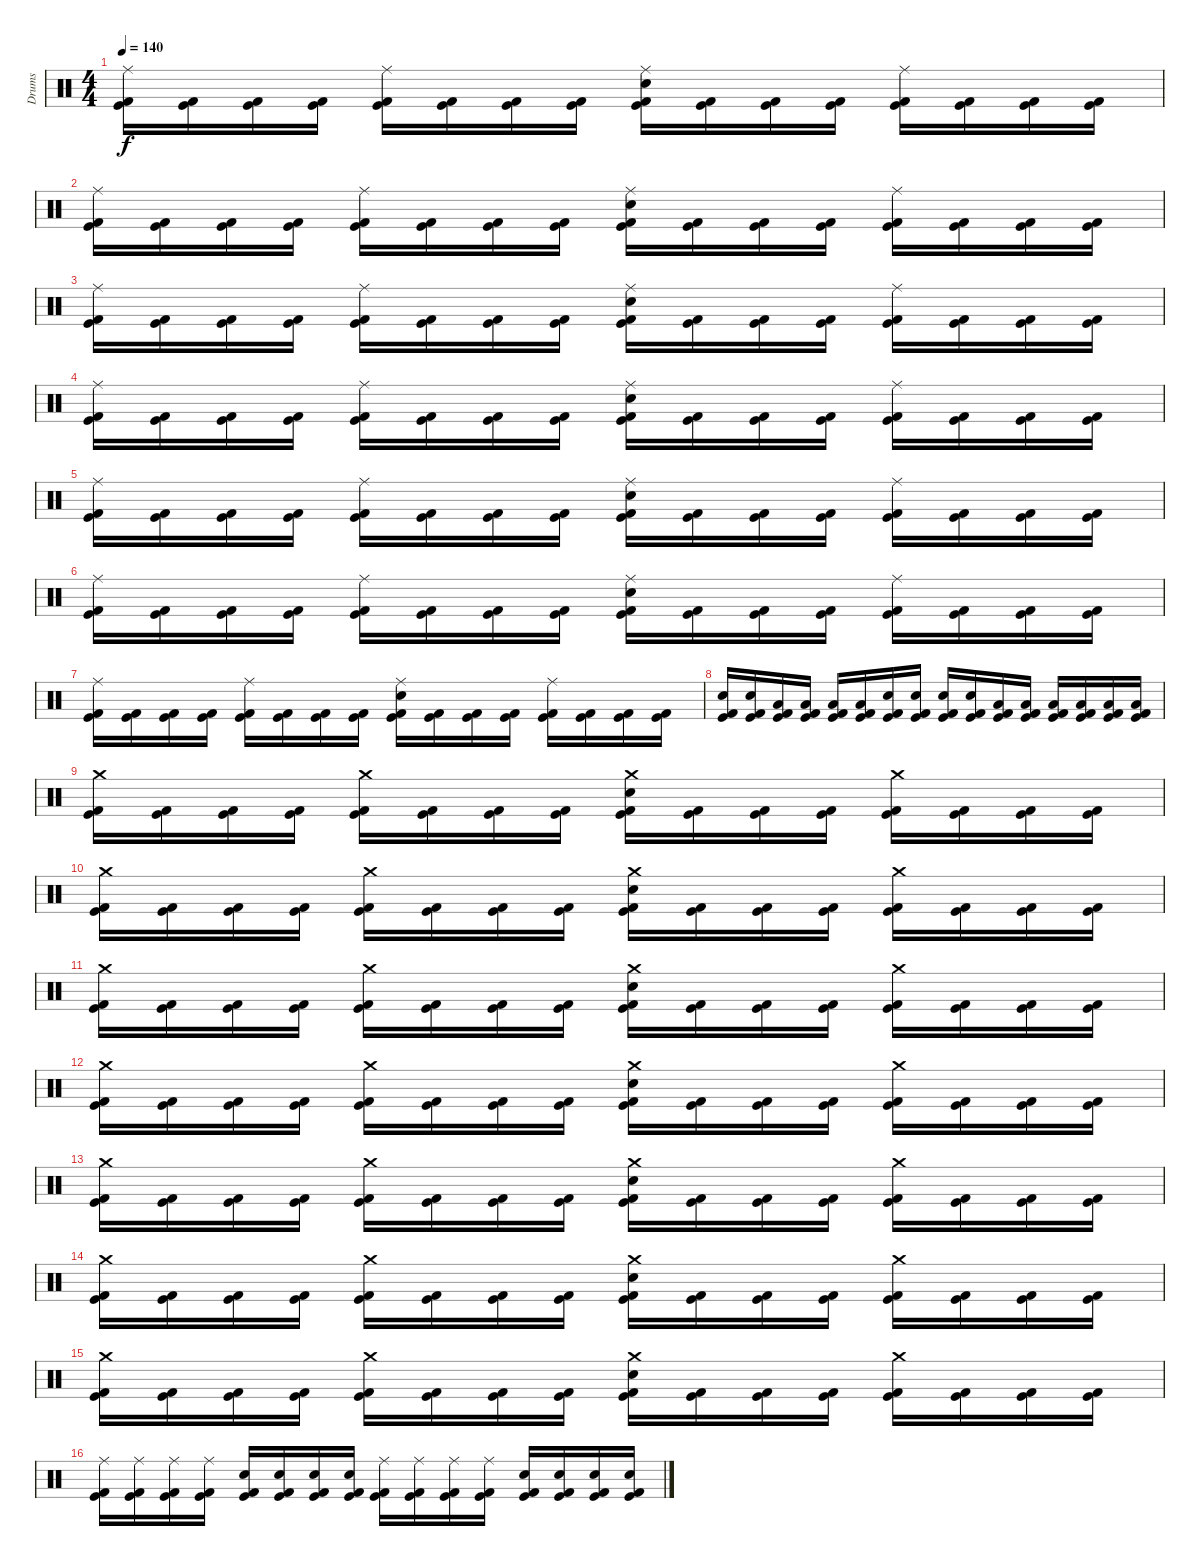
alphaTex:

\track ("Drums" "Drums") {instrument percussion}
\staff {score}
\articulation defaults
\ts (4 4)
\tempo 140
\clef neutral
\ks c
("Ride (middle)" "Kick (hit)" "Kick (hit) 2").16{dy f} ("Kick (hit)" "Kick (hit) 2").16 ("Kick (hit)" "Kick (hit) 2").16 ("Kick (hit)" "Kick (hit) 2").16 ("Ride (middle)" "Kick (hit)" "Kick (hit) 2").16 ("Kick (hit)" "Kick (hit) 2").16 ("Kick (hit)" "Kick (hit) 2").16 ("Kick (hit)" "Kick (hit) 2").16 ("Ride (middle)" "Electric Snare (hit)" "Kick (hit)" "Kick (hit) 2").16 ("Kick (hit)" "Kick (hit) 2").16 ("Kick (hit)" "Kick (hit) 2").16 ("Kick (hit)" "Kick (hit) 2").16 ("Ride (middle)" "Kick (hit)" "Kick (hit) 2").16 ("Kick (hit)" "Kick (hit) 2").16 ("Kick (hit)" "Kick (hit) 2").16 ("Kick (hit)" "Kick (hit) 2").16 |
("Ride (middle)" "Kick (hit)" "Kick (hit) 2").16 ("Kick (hit)" "Kick (hit) 2").16 ("Kick (hit)" "Kick (hit) 2").16 ("Kick (hit)" "Kick (hit) 2").16 ("Ride (middle)" "Kick (hit)" "Kick (hit) 2").16 ("Kick (hit)" "Kick (hit) 2").16 ("Kick (hit)" "Kick (hit) 2").16 ("Kick (hit)" "Kick (hit) 2").16 ("Ride (middle)" "Electric Snare (hit)" "Kick (hit)" "Kick (hit) 2").16 ("Kick (hit)" "Kick (hit) 2").16 ("Kick (hit)" "Kick (hit) 2").16 ("Kick (hit)" "Kick (hit) 2").16 ("Ride (middle)" "Kick (hit)" "Kick (hit) 2").16 ("Kick (hit)" "Kick (hit) 2").16 ("Kick (hit)" "Kick (hit) 2").16 ("Kick (hit)" "Kick (hit) 2").16 |
("Ride (middle)" "Kick (hit)" "Kick (hit) 2").16 ("Kick (hit)" "Kick (hit) 2").16 ("Kick (hit)" "Kick (hit) 2").16 ("Kick (hit)" "Kick (hit) 2").16 ("Ride (middle)" "Kick (hit)" "Kick (hit) 2").16 ("Kick (hit)" "Kick (hit) 2").16 ("Kick (hit)" "Kick (hit) 2").16 ("Kick (hit)" "Kick (hit) 2").16 ("Ride (middle)" "Electric Snare (hit)" "Kick (hit)" "Kick (hit) 2").16 ("Kick (hit)" "Kick (hit) 2").16 ("Kick (hit)" "Kick (hit) 2").16 ("Kick (hit)" "Kick (hit) 2").16 ("Ride (middle)" "Kick (hit)" "Kick (hit) 2").16 ("Kick (hit)" "Kick (hit) 2").16 ("Kick (hit)" "Kick (hit) 2").16 ("Kick (hit)" "Kick (hit) 2").16 |
("Ride (middle)" "Kick (hit)" "Kick (hit) 2").16 ("Kick (hit)" "Kick (hit) 2").16 ("Kick (hit)" "Kick (hit) 2").16 ("Kick (hit)" "Kick (hit) 2").16 ("Ride (middle)" "Kick (hit)" "Kick (hit) 2").16 ("Kick (hit)" "Kick (hit) 2").16 ("Kick (hit)" "Kick (hit) 2").16 ("Kick (hit)" "Kick (hit) 2").16 ("Ride (middle)" "Electric Snare (hit)" "Kick (hit)" "Kick (hit) 2").16 ("Kick (hit)" "Kick (hit) 2").16 ("Kick (hit)" "Kick (hit) 2").16 ("Kick (hit)" "Kick (hit) 2").16 ("Ride (middle)" "Kick (hit)" "Kick (hit) 2").16 ("Kick (hit)" "Kick (hit) 2").16 ("Kick (hit)" "Kick (hit) 2").16 ("Kick (hit)" "Kick (hit) 2").16 |
("Ride (middle)" "Kick (hit)" "Kick (hit) 2").16 ("Kick (hit)" "Kick (hit) 2").16 ("Kick (hit)" "Kick (hit) 2").16 ("Kick (hit)" "Kick (hit) 2").16 ("Ride (middle)" "Kick (hit)" "Kick (hit) 2").16 ("Kick (hit)" "Kick (hit) 2").16 ("Kick (hit)" "Kick (hit) 2").16 ("Kick (hit)" "Kick (hit) 2").16 ("Ride (middle)" "Electric Snare (hit)" "Kick (hit)" "Kick (hit) 2").16 ("Kick (hit)" "Kick (hit) 2").16 ("Kick (hit)" "Kick (hit) 2").16 ("Kick (hit)" "Kick (hit) 2").16 ("Ride (middle)" "Kick (hit)" "Kick (hit) 2").16 ("Kick (hit)" "Kick (hit) 2").16 ("Kick (hit)" "Kick (hit) 2").16 ("Kick (hit)" "Kick (hit) 2").16 |
("Ride (middle)" "Kick (hit)" "Kick (hit) 2").16 ("Kick (hit)" "Kick (hit) 2").16 ("Kick (hit)" "Kick (hit) 2").16 ("Kick (hit)" "Kick (hit) 2").16 ("Ride (middle)" "Kick (hit)" "Kick (hit) 2").16 ("Kick (hit)" "Kick (hit) 2").16 ("Kick (hit)" "Kick (hit) 2").16 ("Kick (hit)" "Kick (hit) 2").16 ("Ride (middle)" "Electric Snare (hit)" "Kick (hit)" "Kick (hit) 2").16 ("Kick (hit)" "Kick (hit) 2").16 ("Kick (hit)" "Kick (hit) 2").16 ("Kick (hit)" "Kick (hit) 2").16 ("Ride (middle)" "Kick (hit)" "Kick (hit) 2").16 ("Kick (hit)" "Kick (hit) 2").16 ("Kick (hit)" "Kick (hit) 2").16 ("Kick (hit)" "Kick (hit) 2").16 |
("Ride (middle)" "Kick (hit)" "Kick (hit) 2").16 ("Kick (hit)" "Kick (hit) 2").16 ("Kick (hit)" "Kick (hit) 2").16 ("Kick (hit)" "Kick (hit) 2").16 ("Ride (middle)" "Kick (hit)" "Kick (hit) 2").16 ("Kick (hit)" "Kick (hit) 2").16 ("Kick (hit)" "Kick (hit) 2").16 ("Kick (hit)" "Kick (hit) 2").16 ("Ride (middle)" "Electric Snare (hit)" "Kick (hit)" "Kick (hit) 2").16 ("Kick (hit)" "Kick (hit) 2").16 ("Kick (hit)" "Kick (hit) 2").16 ("Kick (hit)" "Kick (hit) 2").16 ("Ride (middle)" "Kick (hit)" "Kick (hit) 2").16 ("Kick (hit)" "Kick (hit) 2").16 ("Kick (hit)" "Kick (hit) 2").16 ("Kick (hit)" "Kick (hit) 2").16 |
("Electric Snare (hit)" "Kick (hit)" "Kick (hit) 2").16 ("Electric Snare (hit)" "Kick (hit)" "Kick (hit) 2").16 ("Low Tom (hit)" "Kick (hit)" "Kick (hit) 2").16 ("Low Tom (hit)" "Kick (hit)" "Kick (hit) 2").16 ("Low Tom (hit)" "Kick (hit)" "Kick (hit) 2").16 ("Low Tom (hit)" "Kick (hit)" "Kick (hit) 2").16 ("Electric Snare (hit)" "Kick (hit)" "Kick (hit) 2").16 ("Electric Snare (hit)" "Kick (hit)" "Kick (hit) 2").16 ("Electric Snare (hit)" "Kick (hit)" "Kick (hit) 2").16 ("Electric Snare (hit)" "Kick (hit)" "Kick (hit) 2").16 ("Low Tom (hit)" "Kick (hit)" "Kick (hit) 2").16 ("Low Tom (hit)" "Kick (hit)" "Kick (hit) 2").16 ("Low Tom (hit)" "Kick (hit)" "Kick (hit) 2").16 ("Low Tom (hit)" "Kick (hit)" "Kick (hit) 2").16 ("Low Tom (hit)" "Kick (hit)" "Kick (hit) 2").16 ("Low Tom (hit)" "Kick (hit)" "Kick (hit) 2").16 |
("Crash medium (hit)" "Kick (hit)" "Kick (hit) 2").16 ("Kick (hit)" "Kick (hit) 2").16 ("Kick (hit)" "Kick (hit) 2").16 ("Kick (hit)" "Kick (hit) 2").16 ("Crash medium (hit)" "Kick (hit)" "Kick (hit) 2").16 ("Kick (hit)" "Kick (hit) 2").16 ("Kick (hit)" "Kick (hit) 2").16 ("Kick (hit)" "Kick (hit) 2").16 ("Crash medium (hit)" "Electric Snare (hit)" "Kick (hit)" "Kick (hit) 2").16 ("Kick (hit)" "Kick (hit) 2").16 ("Kick (hit)" "Kick (hit) 2").16 ("Kick (hit)" "Kick (hit) 2").16 ("Crash medium (hit)" "Kick (hit)" "Kick (hit) 2").16 ("Kick (hit)" "Kick (hit) 2").16 ("Kick (hit)" "Kick (hit) 2").16 ("Kick (hit)" "Kick (hit) 2").16 |
("Crash medium (hit)" "Kick (hit)" "Kick (hit) 2").16 ("Kick (hit)" "Kick (hit) 2").16 ("Kick (hit)" "Kick (hit) 2").16 ("Kick (hit)" "Kick (hit) 2").16 ("Crash medium (hit)" "Kick (hit)" "Kick (hit) 2").16 ("Kick (hit)" "Kick (hit) 2").16 ("Kick (hit)" "Kick (hit) 2").16 ("Kick (hit)" "Kick (hit) 2").16 ("Crash medium (hit)" "Electric Snare (hit)" "Kick (hit)" "Kick (hit) 2").16 ("Kick (hit)" "Kick (hit) 2").16 ("Kick (hit)" "Kick (hit) 2").16 ("Kick (hit)" "Kick (hit) 2").16 ("Crash medium (hit)" "Kick (hit)" "Kick (hit) 2").16 ("Kick (hit)" "Kick (hit) 2").16 ("Kick (hit)" "Kick (hit) 2").16 ("Kick (hit)" "Kick (hit) 2").16 |
("Crash medium (hit)" "Kick (hit)" "Kick (hit) 2").16 ("Kick (hit)" "Kick (hit) 2").16 ("Kick (hit)" "Kick (hit) 2").16 ("Kick (hit)" "Kick (hit) 2").16 ("Crash medium (hit)" "Kick (hit)" "Kick (hit) 2").16 ("Kick (hit)" "Kick (hit) 2").16 ("Kick (hit)" "Kick (hit) 2").16 ("Kick (hit)" "Kick (hit) 2").16 ("Crash medium (hit)" "Electric Snare (hit)" "Kick (hit)" "Kick (hit) 2").16 ("Kick (hit)" "Kick (hit) 2").16 ("Kick (hit)" "Kick (hit) 2").16 ("Kick (hit)" "Kick (hit) 2").16 ("Crash medium (hit)" "Kick (hit)" "Kick (hit) 2").16 ("Kick (hit)" "Kick (hit) 2").16 ("Kick (hit)" "Kick (hit) 2").16 ("Kick (hit)" "Kick (hit) 2").16 |
("Crash medium (hit)" "Kick (hit)" "Kick (hit) 2").16 ("Kick (hit)" "Kick (hit) 2").16 ("Kick (hit)" "Kick (hit) 2").16 ("Kick (hit)" "Kick (hit) 2").16 ("Crash medium (hit)" "Kick (hit)" "Kick (hit) 2").16 ("Kick (hit)" "Kick (hit) 2").16 ("Kick (hit)" "Kick (hit) 2").16 ("Kick (hit)" "Kick (hit) 2").16 ("Crash medium (hit)" "Electric Snare (hit)" "Kick (hit)" "Kick (hit) 2").16 ("Kick (hit)" "Kick (hit) 2").16 ("Kick (hit)" "Kick (hit) 2").16 ("Kick (hit)" "Kick (hit) 2").16 ("Crash medium (hit)" "Kick (hit)" "Kick (hit) 2").16 ("Kick (hit)" "Kick (hit) 2").16 ("Kick (hit)" "Kick (hit) 2").16 ("Kick (hit)" "Kick (hit) 2").16 |
("Crash medium (hit)" "Kick (hit)" "Kick (hit) 2").16 ("Kick (hit)" "Kick (hit) 2").16 ("Kick (hit)" "Kick (hit) 2").16 ("Kick (hit)" "Kick (hit) 2").16 ("Crash medium (hit)" "Kick (hit)" "Kick (hit) 2").16 ("Kick (hit)" "Kick (hit) 2").16 ("Kick (hit)" "Kick (hit) 2").16 ("Kick (hit)" "Kick (hit) 2").16 ("Crash medium (hit)" "Electric Snare (hit)" "Kick (hit)" "Kick (hit) 2").16 ("Kick (hit)" "Kick (hit) 2").16 ("Kick (hit)" "Kick (hit) 2").16 ("Kick (hit)" "Kick (hit) 2").16 ("Crash medium (hit)" "Kick (hit)" "Kick (hit) 2").16 ("Kick (hit)" "Kick (hit) 2").16 ("Kick (hit)" "Kick (hit) 2").16 ("Kick (hit)" "Kick (hit) 2").16 |
("Crash medium (hit)" "Kick (hit)" "Kick (hit) 2").16 ("Kick (hit)" "Kick (hit) 2").16 ("Kick (hit)" "Kick (hit) 2").16 ("Kick (hit)" "Kick (hit) 2").16 ("Crash medium (hit)" "Kick (hit)" "Kick (hit) 2").16 ("Kick (hit)" "Kick (hit) 2").16 ("Kick (hit)" "Kick (hit) 2").16 ("Kick (hit)" "Kick (hit) 2").16 ("Crash medium (hit)" "Electric Snare (hit)" "Kick (hit)" "Kick (hit) 2").16 ("Kick (hit)" "Kick (hit) 2").16 ("Kick (hit)" "Kick (hit) 2").16 ("Kick (hit)" "Kick (hit) 2").16 ("Crash medium (hit)" "Kick (hit)" "Kick (hit) 2").16 ("Kick (hit)" "Kick (hit) 2").16 ("Kick (hit)" "Kick (hit) 2").16 ("Kick (hit)" "Kick (hit) 2").16 |
("Crash medium (hit)" "Kick (hit)" "Kick (hit) 2").16 ("Kick (hit)" "Kick (hit) 2").16 ("Kick (hit)" "Kick (hit) 2").16 ("Kick (hit)" "Kick (hit) 2").16 ("Crash medium (hit)" "Kick (hit)" "Kick (hit) 2").16 ("Kick (hit)" "Kick (hit) 2").16 ("Kick (hit)" "Kick (hit) 2").16 ("Kick (hit)" "Kick (hit) 2").16 ("Crash medium (hit)" "Electric Snare (hit)" "Kick (hit)" "Kick (hit) 2").16 ("Kick (hit)" "Kick (hit) 2").16 ("Kick (hit)" "Kick (hit) 2").16 ("Kick (hit)" "Kick (hit) 2").16 ("Crash medium (hit)" "Kick (hit)" "Kick (hit) 2").16 ("Kick (hit)" "Kick (hit) 2").16 ("Kick (hit)" "Kick (hit) 2").16 ("Kick (hit)" "Kick (hit) 2").16 |
("Ride (middle)" "Kick (hit)" "Kick (hit) 2").16 ("Ride (middle)" "Kick (hit)" "Kick (hit) 2").16 ("Ride (middle)" "Kick (hit)" "Kick (hit) 2").16 ("Ride (middle)" "Kick (hit)" "Kick (hit) 2").16 ("Electric Snare (hit)" "Kick (hit)" "Kick (hit) 2").16 ("Electric Snare (hit)" "Kick (hit)" "Kick (hit) 2").16 ("Electric Snare (hit)" "Kick (hit)" "Kick (hit) 2").16 ("Electric Snare (hit)" "Kick (hit)" "Kick (hit) 2").16 ("Ride (middle)" "Kick (hit)" "Kick (hit) 2").16 ("Ride (middle)" "Kick (hit)" "Kick (hit) 2").16 ("Ride (middle)" "Kick (hit)" "Kick (hit) 2").16 ("Ride (middle)" "Kick (hit)" "Kick (hit) 2").16 ("Electric Snare (hit)" "Kick (hit)" "Kick (hit) 2").16 ("Electric Snare (hit)" "Kick (hit)" "Kick (hit) 2").16 ("Electric Snare (hit)" "Kick (hit)" "Kick (hit) 2").16 ("Electric Snare (hit)" "Kick (hit)" "Kick (hit) 2").16
